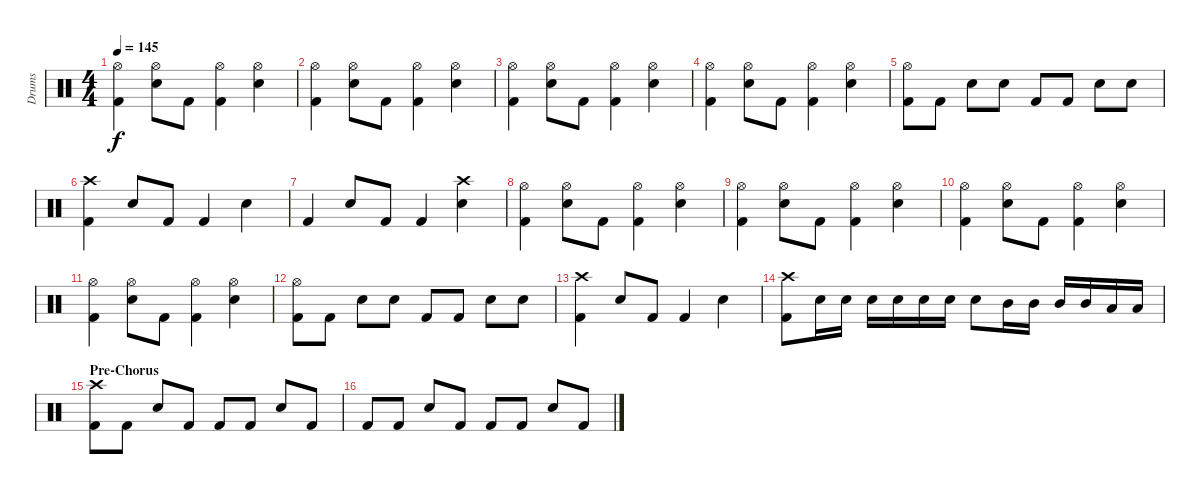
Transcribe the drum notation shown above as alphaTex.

\track ("Drums" "Drums") {instrument percussion}
\staff {score}
\articulation defaults
\ts (4 4)
\tempo 145
\clef neutral
\ks c
("Hi-Hat (open)" "Kick (hit) 2").4{dy f} ("Hi-Hat (open)" "Snare (hit) 2").8 "Kick (hit) 2".8 ("Hi-Hat (open)" "Kick (hit) 2").4 ("Hi-Hat (open)" "Snare (hit) 2").4 |
("Hi-Hat (open)" "Kick (hit) 2").4 ("Hi-Hat (open)" "Snare (hit) 2").8 "Kick (hit) 2".8 ("Hi-Hat (open)" "Kick (hit) 2").4 ("Hi-Hat (open)" "Snare (hit) 2").4 |
("Hi-Hat (open)" "Kick (hit) 2").4 ("Hi-Hat (open)" "Snare (hit) 2").8 "Kick (hit) 2".8 ("Hi-Hat (open)" "Kick (hit) 2").4 ("Hi-Hat (open)" "Snare (hit) 2").4 |
("Hi-Hat (open)" "Kick (hit) 2").4 ("Hi-Hat (open)" "Snare (hit) 2").8 "Kick (hit) 2".8 ("Hi-Hat (open)" "Kick (hit) 2").4 ("Hi-Hat (open)" "Snare (hit) 2").4 |
("Hi-Hat (open)" "Kick (hit) 2").8 "Kick (hit) 2".8 "Snare (hit) 2".8 "Snare (hit) 2".8 "Kick (hit) 2".8 "Kick (hit) 2".8 "Snare (hit) 2".8 "Snare (hit) 2".8 |
("Crash high (hit)" "Kick (hit) 2").4 "Snare (hit) 2".8 "Kick (hit) 2".8 "Kick (hit) 2".4 "Snare (hit) 2".4 |
"Kick (hit) 2".4 "Snare (hit) 2".8 "Kick (hit) 2".8 "Kick (hit) 2".4 ("Crash high (hit)" "Snare (hit) 2").4 |
("Hi-Hat (open)" "Kick (hit) 2").4 ("Hi-Hat (open)" "Snare (hit) 2").8 "Kick (hit) 2".8 ("Hi-Hat (open)" "Kick (hit) 2").4 ("Hi-Hat (open)" "Snare (hit) 2").4 |
("Hi-Hat (open)" "Kick (hit) 2").4 ("Hi-Hat (open)" "Snare (hit) 2").8 "Kick (hit) 2".8 ("Hi-Hat (open)" "Kick (hit) 2").4 ("Hi-Hat (open)" "Snare (hit) 2").4 |
("Hi-Hat (open)" "Kick (hit) 2").4 ("Hi-Hat (open)" "Snare (hit) 2").8 "Kick (hit) 2".8 ("Hi-Hat (open)" "Kick (hit) 2").4 ("Hi-Hat (open)" "Snare (hit) 2").4 |
("Hi-Hat (open)" "Kick (hit) 2").4 ("Hi-Hat (open)" "Snare (hit) 2").8 "Kick (hit) 2".8 ("Hi-Hat (open)" "Kick (hit) 2").4 ("Hi-Hat (open)" "Snare (hit) 2").4 |
("Hi-Hat (open)" "Kick (hit) 2").8 "Kick (hit) 2".8 "Snare (hit) 2".8 "Snare (hit) 2".8 "Kick (hit) 2".8 "Kick (hit) 2".8 "Snare (hit) 2".8 "Snare (hit) 2".8 |
("Crash high (hit)" "Kick (hit) 2").4 "Snare (hit) 2".8 "Kick (hit) 2".8 "Kick (hit) 2".4 "Snare (hit) 2".4 |
("Crash high (hit)" "Kick (hit) 2").8 "Snare (hit) 2".16 "Snare (hit) 2".16 "Snare (hit) 2".16 "Snare (hit) 2".16 "Snare (hit) 2".16 "Snare (hit) 2".16 "Snare (hit) 2".8 "Mid Tom (hit)".16 "Mid Tom (hit)".16 "Mid Tom (hit)".16 "Mid Tom (hit)".16 "Low Tom (hit)".16 "Low Tom (hit)".16 |
\section ("" "Pre-Chorus")
("Crash high (hit)" "Kick (hit) 2").8 "Kick (hit) 2".8 "Snare (hit) 2".8 "Kick (hit) 2".8 "Kick (hit) 2".8 "Kick (hit) 2".8 "Snare (hit) 2".8 "Kick (hit) 2".8 |
"Kick (hit) 2".8 "Kick (hit) 2".8 "Snare (hit) 2".8 "Kick (hit) 2".8 "Kick (hit) 2".8 "Kick (hit) 2".8 "Snare (hit) 2".8 "Kick (hit) 2".8
